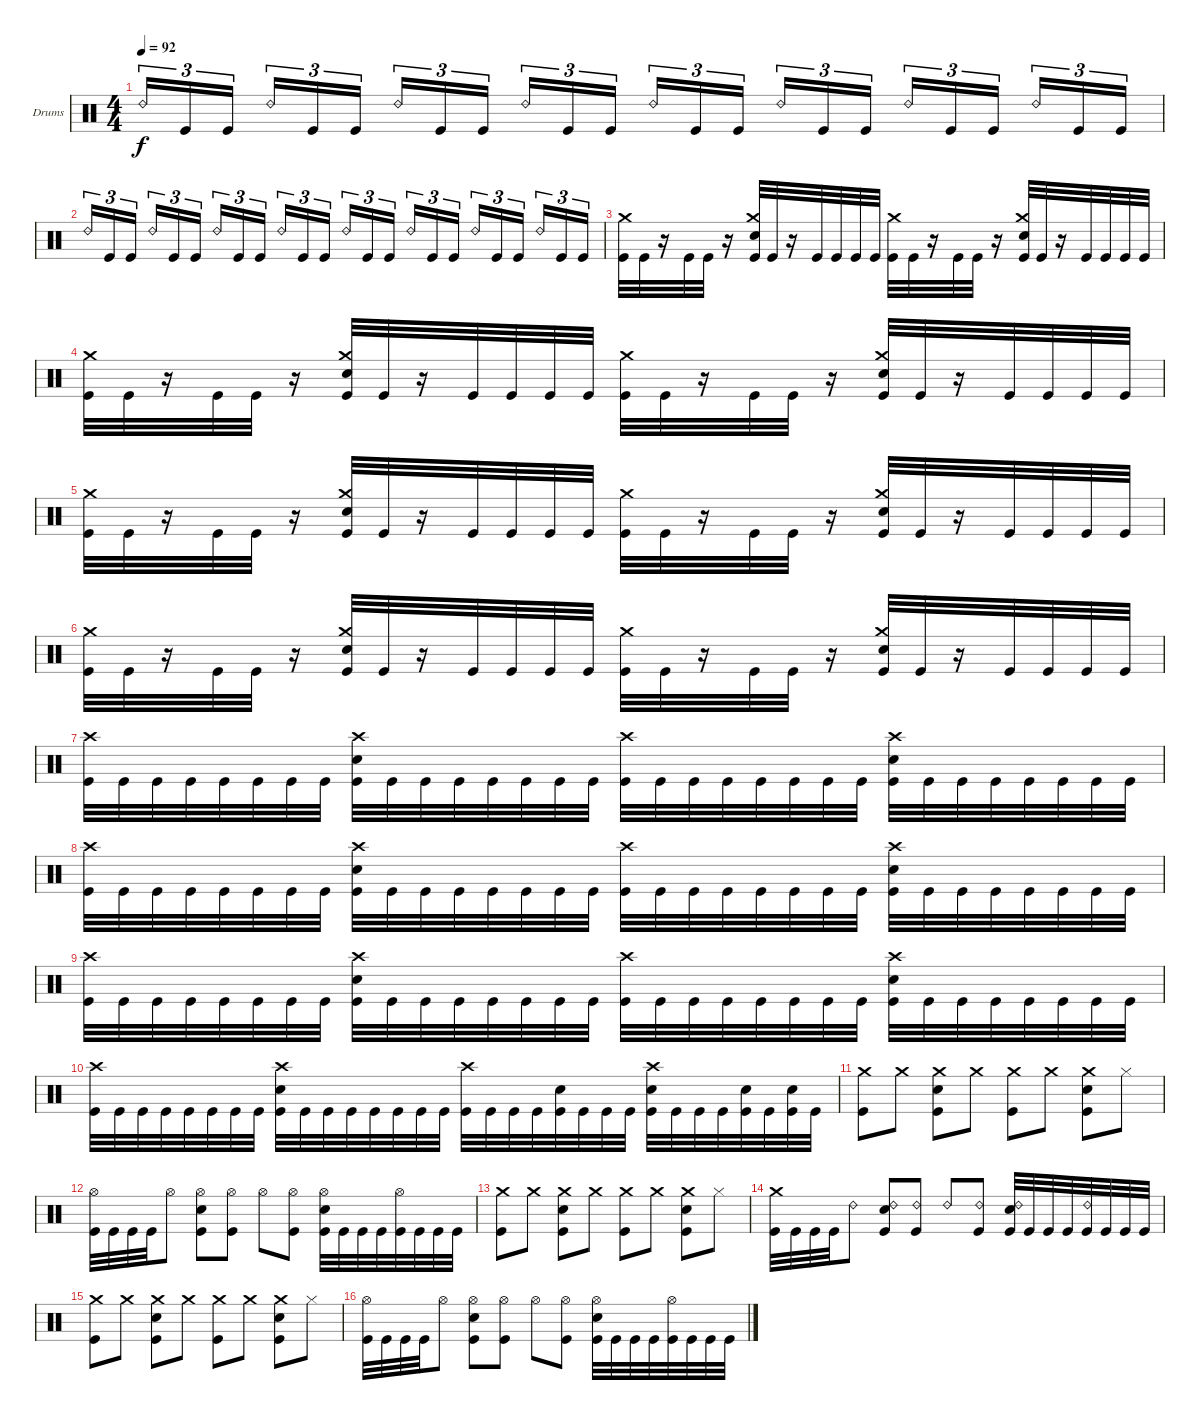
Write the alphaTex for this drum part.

\bracketExtendMode groupsimilarinstruments
\firstSystemTrackNameOrientation horizontal
\otherSystemsTrackNameOrientation horizontal
\track ("Drumkit" "Drums") {instrument percussion}
\staff {score}
\articulation defaults
\ts (4 4)
\tempo 92
\clef neutral
\ks c "Ride (bell) 2".16{tu (3 2) dy f} "Kick (hit)".16{tu (3 2)} "Kick (hit)".16{tu (3 2)} "Ride (bell) 2".16{tu (3 2)} "Kick (hit)".16{tu (3 2)} "Kick (hit)".16{tu (3 2)} "Ride (bell) 2".16{tu (3 2)} "Kick (hit)".16{tu (3 2)} "Kick (hit)".16{tu (3 2)} "Ride (bell) 2".16{tu (3 2)} "Kick (hit)".16{tu (3 2)} "Kick (hit)".16{tu (3 2)} "Ride (bell) 2".16{tu (3 2)} "Kick (hit)".16{tu (3 2)} "Kick (hit)".16{tu (3 2)} "Ride (bell) 2".16{tu (3 2)} "Kick (hit)".16{tu (3 2)} "Kick (hit)".16{tu (3 2)} "Ride (bell) 2".16{tu (3 2)} "Kick (hit)".16{tu (3 2)} "Kick (hit)".16{tu (3 2)} "Ride (bell) 2".16{tu (3 2)} "Kick (hit)".16{tu (3 2)} "Kick (hit)".16{tu (3 2)}
|
"Ride (bell) 2".16{tu (3 2)} "Kick (hit)".16{tu (3 2)} "Kick (hit)".16{tu (3 2)} "Ride (bell) 2".16{tu (3 2)} "Kick (hit)".16{tu (3 2)} "Kick (hit)".16{tu (3 2)} "Ride (bell) 2".16{tu (3 2)} "Kick (hit)".16{tu (3 2)} "Kick (hit)".16{tu (3 2)} "Ride (bell) 2".16{tu (3 2)} "Kick (hit)".16{tu (3 2)} "Kick (hit)".16{tu (3 2)} "Ride (bell) 2".16{tu (3 2)} "Kick (hit)".16{tu (3 2)} "Kick (hit)".16{tu (3 2)} "Ride (bell) 2".16{tu (3 2)} "Kick (hit)".16{tu (3 2)} "Kick (hit)".16{tu (3 2)} "Ride (bell) 2".16{tu (3 2)} "Kick (hit)".16{tu (3 2)} "Kick (hit)".16{tu (3 2)} "Ride (bell) 2".16{tu (3 2)} "Kick (hit)".16{tu (3 2)} "Kick (hit)".16{tu (3 2)} |
("Crash medium (hit)" "Kick (hit)").32 "Kick (hit)".32 r.16 "Kick (hit)".32 "Kick (hit)".32 r.16 ("Crash medium (hit)" "Snare (hit) 2" "Kick (hit)").32 "Kick (hit)".32 r.16 "Kick (hit)".32 "Kick (hit)".32 "Kick (hit)".32 "Kick (hit)".32 ("Crash medium (hit)" "Kick (hit)").32 "Kick (hit)".32 r.16 "Kick (hit)".32 "Kick (hit)".32 r.16 ("Crash medium (hit)" "Snare (hit) 2" "Kick (hit)").32 "Kick (hit)".32 r.16 "Kick (hit)".32 "Kick (hit)".32 "Kick (hit)".32 "Kick (hit)".32 |
("Crash medium (hit)" "Kick (hit)").32 "Kick (hit)".32 r.16 "Kick (hit)".32 "Kick (hit)".32 r.16 ("Crash medium (hit)" "Snare (hit) 2" "Kick (hit)").32 "Kick (hit)".32 r.16 "Kick (hit)".32 "Kick (hit)".32 "Kick (hit)".32 "Kick (hit)".32 ("Crash medium (hit)" "Kick (hit)").32 "Kick (hit)".32 r.16 "Kick (hit)".32 "Kick (hit)".32 r.16 ("Crash medium (hit)" "Snare (hit) 2" "Kick (hit)").32 "Kick (hit)".32 r.16 "Kick (hit)".32 "Kick (hit)".32 "Kick (hit)".32 "Kick (hit)".32 |
("Crash medium (hit)" "Kick (hit)").32 "Kick (hit)".32 r.16 "Kick (hit)".32 "Kick (hit)".32 r.16 ("Crash medium (hit)" "Snare (hit) 2" "Kick (hit)").32 "Kick (hit)".32 r.16 "Kick (hit)".32 "Kick (hit)".32 "Kick (hit)".32 "Kick (hit)".32 ("Crash medium (hit)" "Kick (hit)").32 "Kick (hit)".32 r.16 "Kick (hit)".32 "Kick (hit)".32 r.16 ("Crash medium (hit)" "Snare (hit) 2" "Kick (hit)").32 "Kick (hit)".32 r.16 "Kick (hit)".32 "Kick (hit)".32 "Kick (hit)".32 "Kick (hit)".32 |
("Crash medium (hit)" "Kick (hit)").32 "Kick (hit)".32 r.16 "Kick (hit)".32 "Kick (hit)".32 r.16 ("Crash medium (hit)" "Snare (hit) 2" "Kick (hit)").32 "Kick (hit)".32 r.16 "Kick (hit)".32 "Kick (hit)".32 "Kick (hit)".32 "Kick (hit)".32 ("Crash medium (hit)" "Kick (hit)").32 "Kick (hit)".32 r.16 "Kick (hit)".32 "Kick (hit)".32 r.16 ("Crash medium (hit)" "Snare (hit) 2" "Kick (hit)").32 "Kick (hit)".32 r.16 "Kick (hit)".32 "Kick (hit)".32 "Kick (hit)".32 "Kick (hit)".32 |
("Crash high (hit)" "Kick (hit)").32 "Kick (hit)".32 "Kick (hit)".32 "Kick (hit)".32 "Kick (hit)".32 "Kick (hit)".32 "Kick (hit)".32 "Kick (hit)".32 ("Crash high (hit)" "Snare (hit) 2" "Kick (hit)").32 "Kick (hit)".32 "Kick (hit)".32 "Kick (hit)".32 "Kick (hit)".32 "Kick (hit)".32 "Kick (hit)".32 "Kick (hit)".32 ("Crash high (hit)" "Kick (hit)").32 "Kick (hit)".32 "Kick (hit)".32 "Kick (hit)".32 "Kick (hit)".32 "Kick (hit)".32 "Kick (hit)".32 "Kick (hit)".32 ("Crash high (hit)" "Snare (hit) 2" "Kick (hit)").32 "Kick (hit)".32 "Kick (hit)".32 "Kick (hit)".32 "Kick (hit)".32 "Kick (hit)".32 "Kick (hit)".32 "Kick (hit)".32 |
("Crash high (hit)" "Kick (hit)").32 "Kick (hit)".32 "Kick (hit)".32 "Kick (hit)".32 "Kick (hit)".32 "Kick (hit)".32 "Kick (hit)".32 "Kick (hit)".32 ("Crash high (hit)" "Snare (hit) 2" "Kick (hit)").32 "Kick (hit)".32 "Kick (hit)".32 "Kick (hit)".32 "Kick (hit)".32 "Kick (hit)".32 "Kick (hit)".32 "Kick (hit)".32 ("Crash high (hit)" "Kick (hit)").32 "Kick (hit)".32 "Kick (hit)".32 "Kick (hit)".32 "Kick (hit)".32 "Kick (hit)".32 "Kick (hit)".32 "Kick (hit)".32 ("Crash high (hit)" "Snare (hit) 2" "Kick (hit)").32 "Kick (hit)".32 "Kick (hit)".32 "Kick (hit)".32 "Kick (hit)".32 "Kick (hit)".32 "Kick (hit)".32 "Kick (hit)".32 |
("Crash high (hit)" "Kick (hit)").32 "Kick (hit)".32 "Kick (hit)".32 "Kick (hit)".32 "Kick (hit)".32 "Kick (hit)".32 "Kick (hit)".32 "Kick (hit)".32 ("Crash high (hit)" "Snare (hit) 2" "Kick (hit)").32 "Kick (hit)".32 "Kick (hit)".32 "Kick (hit)".32 "Kick (hit)".32 "Kick (hit)".32 "Kick (hit)".32 "Kick (hit)".32 ("Crash high (hit)" "Kick (hit)").32 "Kick (hit)".32 "Kick (hit)".32 "Kick (hit)".32 "Kick (hit)".32 "Kick (hit)".32 "Kick (hit)".32 "Kick (hit)".32 ("Crash high (hit)" "Snare (hit) 2" "Kick (hit)").32 "Kick (hit)".32 "Kick (hit)".32 "Kick (hit)".32 "Kick (hit)".32 "Kick (hit)".32 "Kick (hit)".32 "Kick (hit)".32 |
("Crash high (hit)" "Kick (hit)").32 "Kick (hit)".32 "Kick (hit)".32 "Kick (hit)".32 "Kick (hit)".32 "Kick (hit)".32 "Kick (hit)".32 "Kick (hit)".32 ("Crash high (hit)" "Snare (hit) 2" "Kick (hit)").32 "Kick (hit)".32 "Kick (hit)".32 "Kick (hit)".32 "Kick (hit)".32 "Kick (hit)".32 "Kick (hit)".32 "Kick (hit)".32 ("Crash high (hit)" "Kick (hit)").32 "Kick (hit)".32 "Kick (hit)".32 "Kick (hit)".32 ("Snare (hit) 2" "Kick (hit)").32 "Kick (hit)".32 "Kick (hit)".32 "Kick (hit)".32 ("Crash high (hit)" "Snare (hit) 2" "Kick (hit)").32 "Kick (hit)".32 "Kick (hit)".32 "Kick (hit)".32 ("Snare (hit) 2" "Kick (hit)").32 "Kick (hit)".32 ("Snare (hit) 2" "Kick (hit)").32 "Kick (hit)".32 |
("Crash medium (hit)" "Kick (hit)").8 "Crash medium (hit)".8 ("Crash medium (hit)" "Snare (hit) 2" "Kick (hit)").8 "Crash medium (hit)".8 ("Crash medium (hit)" "Kick (hit)").8 "Crash medium (hit)".8 ("Crash medium (hit)" "Snare (hit) 2" "Kick (hit)").8 "Hi-Hat (closed)".8 |
("Hi-Hat (open)" "Kick (hit)").32 "Kick (hit)".32 "Kick (hit)".32 "Kick (hit)".32 "Hi-Hat (open)".8 ("Hi-Hat (open)" "Snare (hit) 2" "Kick (hit)").8 ("Hi-Hat (open)" "Kick (hit)").8 "Hi-Hat (open)".8 ("Hi-Hat (open)" "Kick (hit)").8 ("Hi-Hat (open)" "Snare (hit) 2" "Kick (hit)").32 "Kick (hit)".32 "Kick (hit)".32 "Kick (hit)".32 ("Hi-Hat (open)" "Kick (hit)").32 "Kick (hit)".32 "Kick (hit)".32 "Kick (hit)".32 |
("Crash medium (hit)" "Kick (hit)").8 "Crash medium (hit)".8 ("Crash medium (hit)" "Snare (hit) 2" "Kick (hit)").8 "Crash medium (hit)".8 ("Crash medium (hit)" "Kick (hit)").8 "Crash medium (hit)".8 ("Crash medium (hit)" "Snare (hit) 2" "Kick (hit)").8 "Hi-Hat (closed)".8 |
("Crash medium (hit)" "Kick (hit)").32 "Kick (hit)".32 "Kick (hit)".32 "Kick (hit)".32 "Ride (bell) 2".8 ("Ride (bell) 2" "Snare (hit) 2" "Kick (hit)").8 ("Ride (bell) 2" "Kick (hit)").8 "Ride (bell) 2".8 ("Ride (bell) 2" "Kick (hit)").8 ("Ride (bell) 2" "Snare (hit) 2" "Kick (hit)").32 "Kick (hit)".32 "Kick (hit)".32 "Kick (hit)".32 ("Ride (bell) 2" "Kick (hit)").32 "Kick (hit)".32 "Kick (hit)".32 "Kick (hit)".32 |
("Crash medium (hit)" "Kick (hit)").8 "Crash medium (hit)".8 ("Crash medium (hit)" "Snare (hit) 2" "Kick (hit)").8 "Crash medium (hit)".8 ("Crash medium (hit)" "Kick (hit)").8 "Crash medium (hit)".8 ("Crash medium (hit)" "Snare (hit) 2" "Kick (hit)").8 "Hi-Hat (closed)".8 |
("Hi-Hat (open)" "Kick (hit)").32 "Kick (hit)".32 "Kick (hit)".32 "Kick (hit)".32 "Hi-Hat (open)".8 ("Hi-Hat (open)" "Snare (hit) 2" "Kick (hit)").8 ("Hi-Hat (open)" "Kick (hit)").8 "Hi-Hat (open)".8 ("Hi-Hat (open)" "Kick (hit)").8 ("Hi-Hat (open)" "Snare (hit) 2" "Kick (hit)").32 "Kick (hit)".32 "Kick (hit)".32 "Kick (hit)".32 ("Hi-Hat (open)" "Kick (hit)").32 "Kick (hit)".32 "Kick (hit)".32 "Kick (hit)".32
